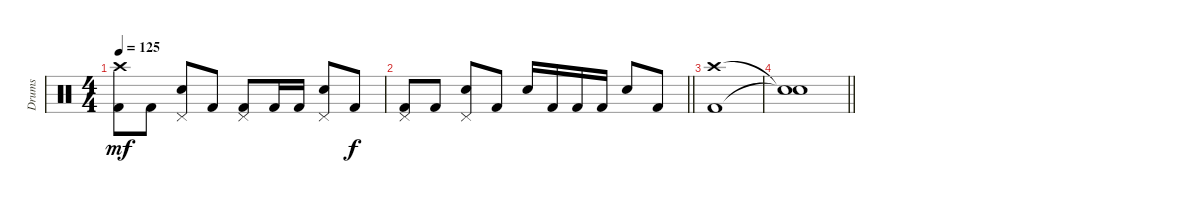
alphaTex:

\track ("Drums" "Drums") {instrument percussion}
\staff {score}
\articulation defaults
\ts (4 4)
\tempo 125
\clef neutral
\ks c
("Crash high (hit)" "Kick (hit) 2").8{dy mf} "Kick (hit) 2".8 ("Pedal Hi-Hat (hit)" "Snare (hit) 2").8 "Kick (hit) 2".8 ("Pedal Hi-Hat (hit)" "Kick (hit) 2").8 "Kick (hit) 2".16 "Kick (hit) 2".16 ("Pedal Hi-Hat (hit)" "Snare (hit) 2").8 "Kick (hit) 2".8{dy f} |
\barLineRight lightlight
("Pedal Hi-Hat (hit)" "Kick (hit) 2").8 "Kick (hit) 2".8 ("Pedal Hi-Hat (hit)" "Snare (hit) 2").8 "Kick (hit) 2".8 "Snare (hit) 2".16 "Kick (hit) 2".16 "Kick (hit) 2".16 "Kick (hit) 2".16 "Snare (hit) 2".8 "Kick (hit) 2".8 |
\section ("" "")
("Crash high (hit)" "Kick (hit) 2").1 |
\barLineRight lightlight
("Snare (hit)"{t} "Snare (hit)"{t}).1
